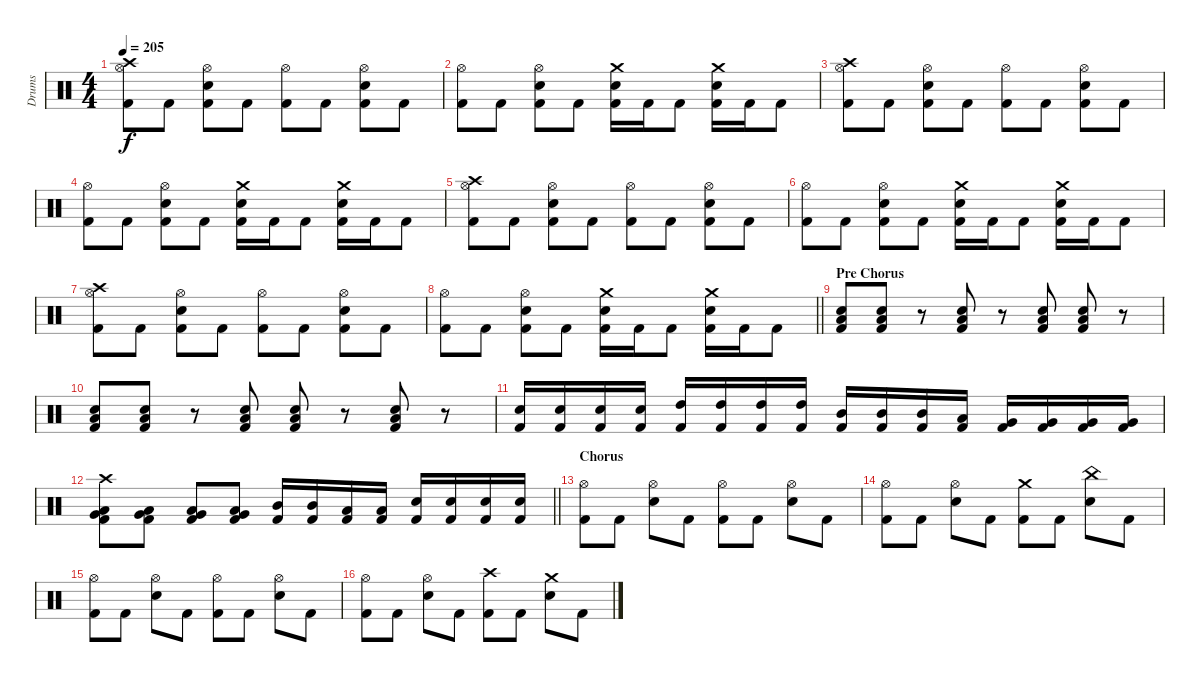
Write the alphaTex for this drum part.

\track ("Drums" "Drums") {instrument percussion}
\staff {score}
\articulation defaults
\ts (4 4)
\tempo 205
\clef neutral
\ks c
("Crash high (hit)" "Hi-Hat (open)" "Kick (hit) 2").8{dy f} "Kick (hit) 2".8 ("Hi-Hat (open)" "Snare (hit) 2" "Kick (hit) 2").8 "Kick (hit) 2".8 ("Hi-Hat (open)" "Kick (hit) 2").8 "Kick (hit) 2".8 ("Hi-Hat (open)" "Snare (hit) 2" "Kick (hit) 2").8 "Kick (hit) 2".8 |
("Hi-Hat (open)" "Kick (hit) 2").8 "Kick (hit) 2".8 ("Hi-Hat (open)" "Snare (hit) 2" "Kick (hit) 2").8 "Kick (hit) 2".8 ("Crash medium (hit)" "Snare (hit) 2" "Kick (hit) 2").16 "Kick (hit) 2".16 "Kick (hit) 2".8 ("Crash medium (hit)" "Snare (hit) 2" "Kick (hit) 2").16 "Kick (hit) 2".16 "Kick (hit) 2".8 |
("Crash high (hit)" "Hi-Hat (open)" "Kick (hit) 2").8 "Kick (hit) 2".8 ("Hi-Hat (open)" "Snare (hit) 2" "Kick (hit) 2").8 "Kick (hit) 2".8 ("Hi-Hat (open)" "Kick (hit) 2").8 "Kick (hit) 2".8 ("Hi-Hat (open)" "Snare (hit) 2" "Kick (hit) 2").8 "Kick (hit) 2".8 |
("Hi-Hat (open)" "Kick (hit) 2").8 "Kick (hit) 2".8 ("Hi-Hat (open)" "Snare (hit) 2" "Kick (hit) 2").8 "Kick (hit) 2".8 ("Crash medium (hit)" "Snare (hit) 2" "Kick (hit) 2").16 "Kick (hit) 2".16 "Kick (hit) 2".8 ("Crash medium (hit)" "Snare (hit) 2" "Kick (hit) 2").16 "Kick (hit) 2".16 "Kick (hit) 2".8 |
("Crash high (hit)" "Hi-Hat (open)" "Kick (hit) 2").8 "Kick (hit) 2".8 ("Hi-Hat (open)" "Snare (hit) 2" "Kick (hit) 2").8 "Kick (hit) 2".8 ("Hi-Hat (open)" "Kick (hit) 2").8 "Kick (hit) 2".8 ("Hi-Hat (open)" "Snare (hit) 2" "Kick (hit) 2").8 "Kick (hit) 2".8 |
("Hi-Hat (open)" "Kick (hit) 2").8 "Kick (hit) 2".8 ("Hi-Hat (open)" "Snare (hit) 2" "Kick (hit) 2").8 "Kick (hit) 2".8 ("Crash medium (hit)" "Snare (hit) 2" "Kick (hit) 2").16 "Kick (hit) 2".16 "Kick (hit) 2".8 ("Crash medium (hit)" "Snare (hit) 2" "Kick (hit) 2").16 "Kick (hit) 2".16 "Kick (hit) 2".8 |
("Crash high (hit)" "Hi-Hat (open)" "Kick (hit) 2").8 "Kick (hit) 2".8 ("Hi-Hat (open)" "Snare (hit) 2" "Kick (hit) 2").8 "Kick (hit) 2".8 ("Hi-Hat (open)" "Kick (hit) 2").8 "Kick (hit) 2".8 ("Hi-Hat (open)" "Snare (hit) 2" "Kick (hit) 2").8 "Kick (hit) 2".8 |
\barLineRight lightlight
("Hi-Hat (open)" "Kick (hit) 2").8 "Kick (hit) 2".8 ("Hi-Hat (open)" "Snare (hit) 2" "Kick (hit) 2").8 "Kick (hit) 2".8 ("Crash medium (hit)" "Snare (hit) 2" "Kick (hit) 2").16 "Kick (hit) 2".16 "Kick (hit) 2".8 ("Crash medium (hit)" "Snare (hit) 2" "Kick (hit) 2").16 "Kick (hit) 2".16 "Kick (hit) 2".8 |
\section ("" "Pre Chorus")
("Low Tom (hit)" "Snare (hit) 2" "Kick (hit) 2").8 ("Low Tom (hit)" "Snare (hit) 2" "Kick (hit) 2").8 r.8 ("Low Tom (hit)" "Snare (hit) 2" "Kick (hit) 2").8 r.8 ("Low Tom (hit)" "Snare (hit) 2" "Kick (hit) 2").8 ("Low Tom (hit)" "Snare (hit) 2" "Kick (hit) 2").8 r.8 |
("Low Tom (hit)" "Snare (hit) 2" "Kick (hit) 2").8 ("Low Tom (hit)" "Snare (hit) 2" "Kick (hit) 2").8 r.8 ("Low Tom (hit)" "Snare (hit) 2" "Kick (hit) 2").8 ("Low Tom (hit)" "Snare (hit) 2" "Kick (hit) 2").8 r.8 ("Low Tom (hit)" "Snare (hit) 2" "Kick (hit) 2").8 r.8 |
("Snare (hit) 2" "Kick (hit) 2").16 ("Snare (hit) 2" "Kick (hit) 2").16 ("Snare (hit) 2" "Kick (hit) 2").16 ("Snare (hit) 2" "Kick (hit) 2").16 ("High Tom (hit)" "Kick (hit) 2").16 ("High Tom (hit)" "Kick (hit) 2").16 ("High Tom (hit)" "Kick (hit) 2").16 ("High Tom (hit)" "Kick (hit) 2").16 ("Mid Tom (hit)" "Kick (hit) 2").16 ("Mid Tom (hit)" "Kick (hit) 2").16 ("Mid Tom (hit)" "Kick (hit) 2").16 ("Low Tom (hit)" "Kick (hit) 2").16 ("Very Low Tom (hit)" "Kick (hit) 2").16 ("Very Low Tom (hit)" "Kick (hit) 2").16 ("Very Low Tom (hit)" "Kick (hit) 2").16 ("Very Low Tom (hit)" "Kick (hit) 2").16 |
\barLineRight lightlight
("Crash high (hit)" "Low Tom (hit)" "Very Low Tom (hit)" "Kick (hit) 2").8 ("Low Tom (hit)" "Very Low Tom (hit)" "Kick (hit) 2").8 ("Low Tom (hit)" "Very Low Tom (hit)" "Kick (hit) 2").8 ("Low Tom (hit)" "Very Low Tom (hit)" "Kick (hit) 2").8 ("Mid Tom (hit)" "Kick (hit) 2").16 ("Mid Tom (hit)" "Kick (hit) 2").16 ("Low Tom (hit)" "Kick (hit) 2").16 ("Low Tom (hit)" "Kick (hit) 2").16 ("Snare (hit) 2" "Kick (hit) 2").16 ("Snare (hit) 2" "Kick (hit) 2").16 ("Snare (hit) 2" "Kick (hit) 2").16 ("Snare (hit) 2" "Kick (hit) 2").16 |
\section ("" "Chorus")
("Kick (hit) 2" "Hi-Hat (open)").8 "Kick (hit) 2".8 ("Snare (hit) 2" "Hi-Hat (open)").8 "Kick (hit) 2".8 ("Kick (hit) 2" "Hi-Hat (open)").8 "Kick (hit) 2".8 ("Snare (hit) 2" "Hi-Hat (open)").8 "Kick (hit) 2".8 |
("Kick (hit) 2" "Hi-Hat (open)").8 "Kick (hit) 2".8 ("Snare (hit) 2" "Hi-Hat (open)").8 "Kick (hit) 2".8 ("Kick (hit) 2" "Crash medium (hit)").8 "Kick (hit) 2".8 ("Snare (hit) 2" "China (hit)").8 "Kick (hit) 2".8 |
("Kick (hit) 2" "Hi-Hat (open)").8 "Kick (hit) 2".8 ("Snare (hit) 2" "Hi-Hat (open)").8 "Kick (hit) 2".8 ("Kick (hit) 2" "Hi-Hat (open)").8 "Kick (hit) 2".8 ("Snare (hit) 2" "Hi-Hat (open)").8 "Kick (hit) 2".8 |
("Kick (hit) 2" "Hi-Hat (open)").8 "Kick (hit) 2".8 ("Snare (hit) 2" "Hi-Hat (open)").8 "Kick (hit) 2".8 ("Kick (hit) 2" "Crash high (hit)").8 "Kick (hit) 2".8 ("Snare (hit) 2" "Crash medium (hit)").8 "Kick (hit) 2".8
